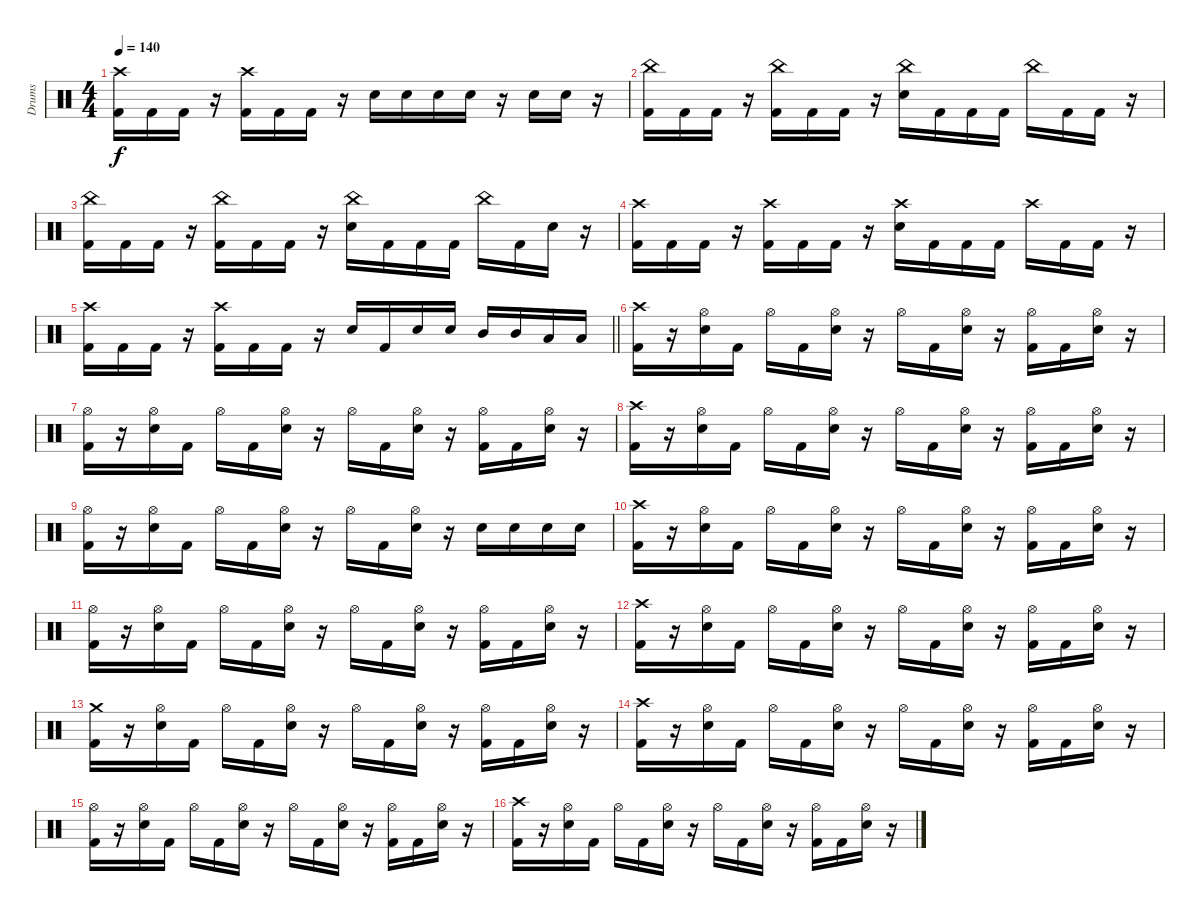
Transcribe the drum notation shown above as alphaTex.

\track ("Drums" "Drums") {instrument percussion}
\staff {score}
\articulation defaults
\ts (4 4)
\tempo 140
\clef neutral
\ks c
("Kick (hit) 2" "Crash high (hit)").16{dy f} "Kick (hit) 2".16 "Kick (hit) 2".16 r.16 ("Kick (hit) 2" "Crash high (hit)").16 "Kick (hit) 2".16 "Kick (hit) 2".16 r.16 "Snare (hit) 2".16 "Snare (hit) 2".16 "Snare (hit) 2".16 "Snare (hit) 2".16 r.16 "Snare (hit) 2".16 "Snare (hit) 2".16 r.16 |
("Kick (hit) 2" "China (hit)").16 "Kick (hit) 2".16 "Kick (hit) 2".16 r.16 ("Kick (hit) 2" "China (hit)").16 "Kick (hit) 2".16 "Kick (hit) 2".16 r.16 ("Snare (hit) 2" "China (hit)").16 "Kick (hit) 2".16 "Kick (hit) 2".16 "Kick (hit) 2".16 "China (hit)".16 "Kick (hit) 2".16 "Kick (hit) 2".16 r.16 |
("Kick (hit) 2" "China (hit)").16 "Kick (hit) 2".16 "Kick (hit) 2".16 r.16 ("Kick (hit) 2" "China (hit)").16 "Kick (hit) 2".16 "Kick (hit) 2".16 r.16 ("Snare (hit) 2" "China (hit)").16 "Kick (hit) 2".16 "Kick (hit) 2".16 "Kick (hit) 2".16 "China (hit)".16 "Kick (hit) 2".16 "Snare (hit) 2".16 r.16 |
("Kick (hit) 2" "Crash high (hit)").16 "Kick (hit) 2".16 "Kick (hit) 2".16 r.16 ("Kick (hit) 2" "Crash high (hit)").16 "Kick (hit) 2".16 "Kick (hit) 2".16 r.16 ("Snare (hit) 2" "Crash high (hit)").16 "Kick (hit) 2".16 "Kick (hit) 2".16 "Kick (hit) 2".16 "Crash high (hit)".16 "Kick (hit) 2".16 "Kick (hit) 2".16 r.16 |
\barLineRight lightlight
("Kick (hit) 2" "Crash high (hit)").16 "Kick (hit) 2".16 "Kick (hit) 2".16 r.16 ("Kick (hit) 2" "Crash high (hit)").16 "Kick (hit) 2".16 "Kick (hit) 2".16 r.16 "Snare (hit) 2".16 "Kick (hit) 2".16 "Snare (hit) 2".16 "Snare (hit) 2".16 "Mid Tom (hit)".16 "Mid Tom (hit)".16 "Low Tom (hit)".16 "Low Tom (hit)".16 |
\section ("" " ")
("Kick (hit) 2" "Crash high (hit)").16 r.16 ("Snare (hit) 2" "Hi-Hat (open)").16 "Kick (hit) 2".16 "Hi-Hat (open)".16 "Kick (hit) 2".16 ("Snare (hit) 2" "Hi-Hat (open)").16 r.16 "Hi-Hat (open)".16 "Kick (hit) 2".16 ("Snare (hit) 2" "Hi-Hat (open)").16 r.16 ("Kick (hit) 2" "Hi-Hat (open)").16 "Kick (hit) 2".16 ("Snare (hit) 2" "Hi-Hat (open)").16 r.16 |
("Kick (hit) 2" "Hi-Hat (open)").16 r.16 ("Snare (hit) 2" "Hi-Hat (open)").16 "Kick (hit) 2".16 "Hi-Hat (open)".16 "Kick (hit) 2".16 ("Snare (hit) 2" "Hi-Hat (open)").16 r.16 "Hi-Hat (open)".16 "Kick (hit) 2".16 ("Snare (hit) 2" "Hi-Hat (open)").16 r.16 ("Kick (hit) 2" "Hi-Hat (open)").16 "Kick (hit) 2".16 ("Snare (hit) 2" "Hi-Hat (open)").16 r.16 |
("Kick (hit) 2" "Crash high (hit)").16 r.16 ("Snare (hit) 2" "Hi-Hat (open)").16 "Kick (hit) 2".16 "Hi-Hat (open)".16 "Kick (hit) 2".16 ("Snare (hit) 2" "Hi-Hat (open)").16 r.16 "Hi-Hat (open)".16 "Kick (hit) 2".16 ("Snare (hit) 2" "Hi-Hat (open)").16 r.16 ("Kick (hit) 2" "Hi-Hat (open)").16 "Kick (hit) 2".16 ("Snare (hit) 2" "Hi-Hat (open)").16 r.16 |
("Kick (hit) 2" "Hi-Hat (open)").16 r.16 ("Snare (hit) 2" "Hi-Hat (open)").16 "Kick (hit) 2".16 "Hi-Hat (open)".16 "Kick (hit) 2".16 ("Snare (hit) 2" "Hi-Hat (open)").16 r.16 "Hi-Hat (open)".16 "Kick (hit) 2".16 ("Snare (hit) 2" "Hi-Hat (open)").16 r.16 "Snare (hit) 2".16 "Snare (hit) 2".16 "Snare (hit) 2".16 "Snare (hit) 2".16 |
("Kick (hit) 2" "Crash high (hit)").16 r.16 ("Snare (hit) 2" "Hi-Hat (open)").16 "Kick (hit) 2".16 "Hi-Hat (open)".16 "Kick (hit) 2".16 ("Snare (hit) 2" "Hi-Hat (open)").16 r.16 "Hi-Hat (open)".16 "Kick (hit) 2".16 ("Snare (hit) 2" "Hi-Hat (open)").16 r.16 ("Kick (hit) 2" "Hi-Hat (open)").16 "Kick (hit) 2".16 ("Snare (hit) 2" "Hi-Hat (open)").16 r.16 |
("Kick (hit) 2" "Hi-Hat (open)").16 r.16 ("Snare (hit) 2" "Hi-Hat (open)").16 "Kick (hit) 2".16 "Hi-Hat (open)".16 "Kick (hit) 2".16 ("Snare (hit) 2" "Hi-Hat (open)").16 r.16 "Hi-Hat (open)".16 "Kick (hit) 2".16 ("Snare (hit) 2" "Hi-Hat (open)").16 r.16 ("Kick (hit) 2" "Hi-Hat (open)").16 "Kick (hit) 2".16 ("Snare (hit) 2" "Hi-Hat (open)").16 r.16 |
("Kick (hit) 2" "Crash high (hit)").16 r.16 ("Snare (hit) 2" "Hi-Hat (open)").16 "Kick (hit) 2".16 "Hi-Hat (open)".16 "Kick (hit) 2".16 ("Snare (hit) 2" "Hi-Hat (open)").16 r.16 "Hi-Hat (open)".16 "Kick (hit) 2".16 ("Snare (hit) 2" "Hi-Hat (open)").16 r.16 ("Kick (hit) 2" "Hi-Hat (open)").16 "Kick (hit) 2".16 ("Snare (hit) 2" "Hi-Hat (open)").16 r.16 |
("Kick (hit) 2" "Crash medium (hit)").16 r.16 ("Snare (hit) 2" "Hi-Hat (open)").16 "Kick (hit) 2".16 "Hi-Hat (open)".16 "Kick (hit) 2".16 ("Snare (hit) 2" "Hi-Hat (open)").16 r.16 "Hi-Hat (open)".16 "Kick (hit) 2".16 ("Snare (hit) 2" "Hi-Hat (open)").16 r.16 ("Kick (hit) 2" "Hi-Hat (open)").16 "Kick (hit) 2".16 ("Snare (hit) 2" "Hi-Hat (open)").16 r.16 |
("Kick (hit) 2" "Crash high (hit)").16 r.16 ("Snare (hit) 2" "Hi-Hat (open)").16 "Kick (hit) 2".16 "Hi-Hat (open)".16 "Kick (hit) 2".16 ("Snare (hit) 2" "Hi-Hat (open)").16 r.16 "Hi-Hat (open)".16 "Kick (hit) 2".16 ("Snare (hit) 2" "Hi-Hat (open)").16 r.16 ("Kick (hit) 2" "Hi-Hat (open)").16 "Kick (hit) 2".16 ("Snare (hit) 2" "Hi-Hat (open)").16 r.16 |
("Kick (hit) 2" "Hi-Hat (open)").16 r.16 ("Snare (hit) 2" "Hi-Hat (open)").16 "Kick (hit) 2".16 "Hi-Hat (open)".16 "Kick (hit) 2".16 ("Snare (hit) 2" "Hi-Hat (open)").16 r.16 "Hi-Hat (open)".16 "Kick (hit) 2".16 ("Snare (hit) 2" "Hi-Hat (open)").16 r.16 ("Kick (hit) 2" "Hi-Hat (open)").16 "Kick (hit) 2".16 ("Snare (hit) 2" "Hi-Hat (open)").16 r.16 |
("Kick (hit) 2" "Crash high (hit)").16 r.16 ("Snare (hit) 2" "Hi-Hat (open)").16 "Kick (hit) 2".16 "Hi-Hat (open)".16 "Kick (hit) 2".16 ("Snare (hit) 2" "Hi-Hat (open)").16 r.16 "Hi-Hat (open)".16 "Kick (hit) 2".16 ("Snare (hit) 2" "Hi-Hat (open)").16 r.16 ("Kick (hit) 2" "Hi-Hat (open)").16 "Kick (hit) 2".16 ("Snare (hit) 2" "Hi-Hat (open)").16 r.16
